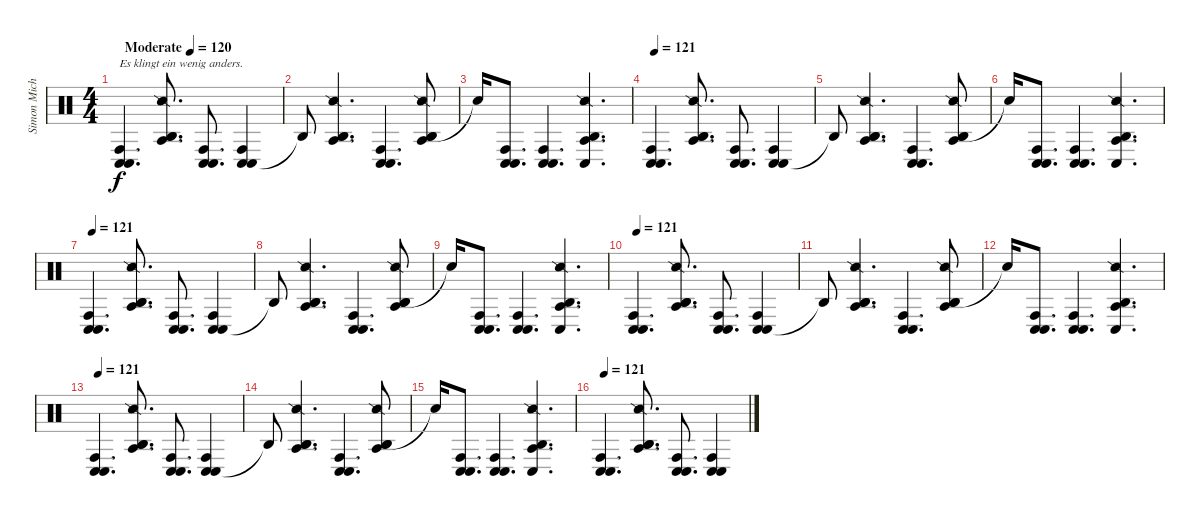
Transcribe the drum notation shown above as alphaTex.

\track ("Simon Michael" "Simon Mich") {instrument percussion}
\staff {score}
\articulation defaults
\ts (4 4)
\section ("" "")
\tempo (120 "Moderate")
\tempo 121
\tempo (120 "Moderate")
\clef neutral
\ks c
("Conga low (hit)" "Conga high (hit)" "Conga low (hit)").4{d txt "Es klingt ein wenig anders." dy f} ("Agogo high (hit)" "Snare (side stick) 2" "Agogo tow (hit)" "Agogo high (hit)").8{d} ("Conga low (hit)" "Conga high (hit)" "Conga low (hit)").8{d} ("Conga low (hit)" "Conga high (hit)" "Conga low (hit)").4 |
"Agogo high (hit)"{t}.8 ("Agogo high (hit)" "Snare (side stick) 2" "Agogo tow (hit)" "Agogo high (hit)").4{d} ("Conga low (hit)" "Conga high (hit)" "Conga low (hit)").4{d} ("Agogo high (hit)" "Snare (side stick) 2" "Agogo tow (hit)" "Agogo high (hit)").8 |
"Snare (hit)"{t}.16 ("Conga low (hit)" "Conga high (hit)" "Conga low (hit)").8{d} ("Conga low (hit)" "Conga high (hit)" "Conga low (hit)").4{d} ("Agogo high (hit)" "Snare (side stick) 2" "Agogo tow (hit)" "Conga low (hit)").4{d} |
\tempo 121
("Conga low (hit)" "Conga high (hit)" "Conga low (hit)").4{d} ("Agogo high (hit)" "Snare (side stick) 2" "Agogo tow (hit)" "Agogo high (hit)").8{d} ("Conga low (hit)" "Conga high (hit)" "Conga low (hit)").8{d} ("Conga low (hit)" "Conga high (hit)" "Conga low (hit)").4 |
"Agogo high (hit)"{t}.8 ("Agogo high (hit)" "Snare (side stick) 2" "Agogo tow (hit)" "Agogo high (hit)").4{d} ("Conga low (hit)" "Conga high (hit)" "Conga low (hit)").4{d} ("Agogo high (hit)" "Snare (side stick) 2" "Agogo tow (hit)" "Agogo high (hit)").8 |
"Snare (hit)"{t}.16 ("Conga low (hit)" "Conga high (hit)" "Conga low (hit)").8{d} ("Conga low (hit)" "Conga high (hit)" "Conga low (hit)").4{d} ("Agogo high (hit)" "Snare (side stick) 2" "Agogo tow (hit)" "Conga low (hit)").4{d} |
\tempo 121
("Conga low (hit)" "Conga high (hit)" "Conga low (hit)").4{d} ("Agogo high (hit)" "Snare (side stick) 2" "Agogo tow (hit)" "Agogo high (hit)").8{d} ("Conga low (hit)" "Conga high (hit)" "Conga low (hit)").8{d} ("Conga low (hit)" "Conga high (hit)" "Conga low (hit)").4 |
"Agogo high (hit)"{t}.8 ("Agogo high (hit)" "Snare (side stick) 2" "Agogo tow (hit)" "Agogo high (hit)").4{d} ("Conga low (hit)" "Conga high (hit)" "Conga low (hit)").4{d} ("Agogo high (hit)" "Snare (side stick) 2" "Agogo tow (hit)" "Agogo high (hit)").8 |
"Snare (hit)"{t}.16 ("Conga low (hit)" "Conga high (hit)" "Conga low (hit)").8{d} ("Conga low (hit)" "Conga high (hit)" "Conga low (hit)").4{d} ("Agogo high (hit)" "Snare (side stick) 2" "Agogo tow (hit)" "Conga low (hit)").4{d} |
\tempo 121
("Conga low (hit)" "Conga high (hit)" "Conga low (hit)").4{d} ("Agogo high (hit)" "Snare (side stick) 2" "Agogo tow (hit)" "Agogo high (hit)").8{d} ("Conga low (hit)" "Conga high (hit)" "Conga low (hit)").8{d} ("Conga low (hit)" "Conga high (hit)" "Conga low (hit)").4 |
"Agogo high (hit)"{t}.8 ("Agogo high (hit)" "Snare (side stick) 2" "Agogo tow (hit)" "Agogo high (hit)").4{d} ("Conga low (hit)" "Conga high (hit)" "Conga low (hit)").4{d} ("Agogo high (hit)" "Snare (side stick) 2" "Agogo tow (hit)" "Agogo high (hit)").8 |
"Snare (hit)"{t}.16 ("Conga low (hit)" "Conga high (hit)" "Conga low (hit)").8{d} ("Conga low (hit)" "Conga high (hit)" "Conga low (hit)").4{d} ("Agogo high (hit)" "Snare (side stick) 2" "Agogo tow (hit)" "Conga low (hit)").4{d} |
\tempo 121
("Conga low (hit)" "Conga high (hit)" "Conga low (hit)").4{d} ("Agogo high (hit)" "Snare (side stick) 2" "Agogo tow (hit)" "Agogo high (hit)").8{d} ("Conga low (hit)" "Conga high (hit)" "Conga low (hit)").8{d} ("Conga low (hit)" "Conga high (hit)" "Conga low (hit)").4 |
"Agogo high (hit)"{t}.8 ("Agogo high (hit)" "Snare (side stick) 2" "Agogo tow (hit)" "Agogo high (hit)").4{d} ("Conga low (hit)" "Conga high (hit)" "Conga low (hit)").4{d} ("Agogo high (hit)" "Snare (side stick) 2" "Agogo tow (hit)" "Agogo high (hit)").8 |
"Snare (hit)"{t}.16 ("Conga low (hit)" "Conga high (hit)" "Conga low (hit)").8{d} ("Conga low (hit)" "Conga high (hit)" "Conga low (hit)").4{d} ("Agogo high (hit)" "Snare (side stick) 2" "Agogo tow (hit)" "Conga low (hit)").4{d} |
\tempo 121
("Conga low (hit)" "Conga high (hit)" "Conga low (hit)").4{d} ("Agogo high (hit)" "Snare (side stick) 2" "Agogo tow (hit)" "Agogo high (hit)").8{d} ("Conga low (hit)" "Conga high (hit)" "Conga low (hit)").8{d} ("Conga low (hit)" "Conga high (hit)" "Conga low (hit)").4
